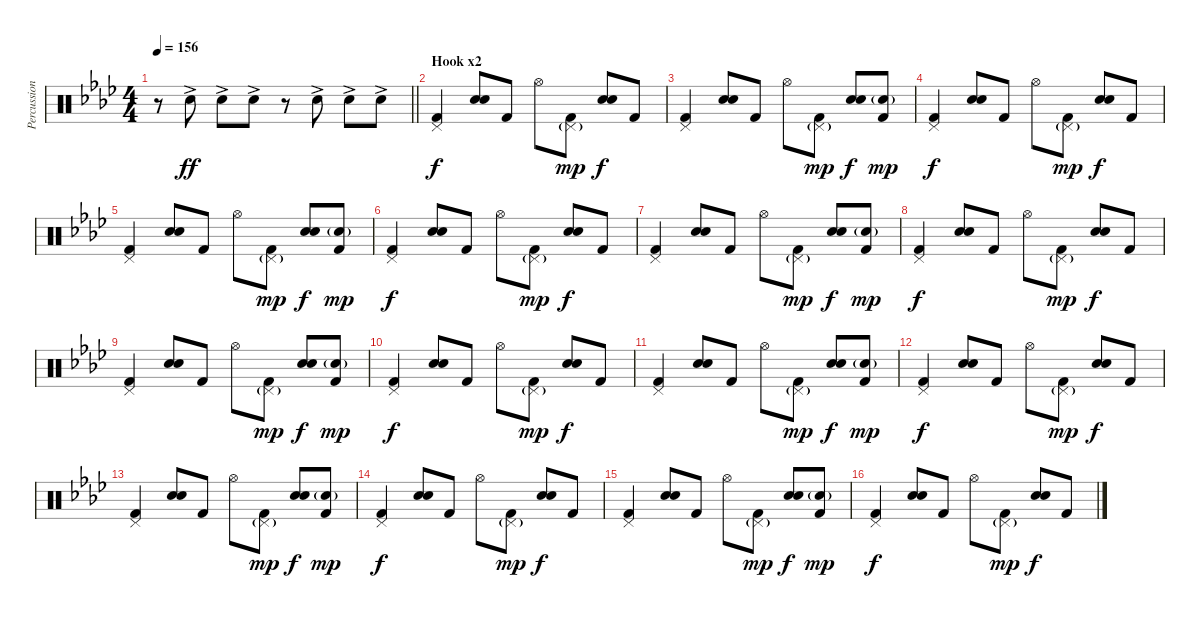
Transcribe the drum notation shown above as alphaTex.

\track ("Percussion" "Percussion") {instrument percussion}
\staff {score}
\articulation defaults
\ts (4 4)
\tempo 156
\clef neutral
\barLineRight lightlight
\ks fminor
r.8{dy ff} "Hand Clap (hit)"{ac}.8 "Hand Clap (hit)"{ac}.8 "Hand Clap (hit)"{ac}.8 r.8 "Hand Clap (hit)"{ac}.8 "Hand Clap (hit)"{ac}.8 "Hand Clap (hit)"{ac}.8 |
\section ("" "Hook x2")
("Pedal Hi-Hat (hit)" "Kick (hit) 2").4{dy f} ("Hand Clap (hit)" "Electric Snare (hit)").8 "Kick (hit) 2".8 "Hi-Hat (open)".8 ("Pedal Hi-Hat (hit)"{g} "Kick (hit) 2").8{dy mp} ("Hand Clap (hit)" "Electric Snare (hit)").8{dy f} "Kick (hit) 2".8 |
("Pedal Hi-Hat (hit)" "Kick (hit) 2").4 ("Hand Clap (hit)" "Electric Snare (hit)").8 "Kick (hit) 2".8 "Hi-Hat (open)".8 ("Pedal Hi-Hat (hit)"{g} "Kick (hit) 2").8{dy mp} ("Hand Clap (hit)" "Electric Snare (hit)").8{dy f} ("Hand Clap (hit)"{g} "Kick (hit) 2").8{dy mp} |
("Pedal Hi-Hat (hit)" "Kick (hit) 2").4{dy f} ("Hand Clap (hit)" "Electric Snare (hit)").8 "Kick (hit) 2".8 "Hi-Hat (open)".8 ("Pedal Hi-Hat (hit)"{g} "Kick (hit) 2").8{dy mp} ("Hand Clap (hit)" "Electric Snare (hit)").8{dy f} "Kick (hit) 2".8 |
("Pedal Hi-Hat (hit)" "Kick (hit) 2").4 ("Hand Clap (hit)" "Electric Snare (hit)").8 "Kick (hit) 2".8 "Hi-Hat (open)".8 ("Pedal Hi-Hat (hit)"{g} "Kick (hit) 2").8{dy mp} ("Hand Clap (hit)" "Electric Snare (hit)").8{dy f} ("Hand Clap (hit)"{g} "Kick (hit) 2").8{dy mp} |
("Pedal Hi-Hat (hit)" "Kick (hit) 2").4{dy f} ("Hand Clap (hit)" "Electric Snare (hit)").8 "Kick (hit) 2".8 "Hi-Hat (open)".8 ("Pedal Hi-Hat (hit)"{g} "Kick (hit) 2").8{dy mp} ("Hand Clap (hit)" "Electric Snare (hit)").8{dy f} "Kick (hit) 2".8 |
("Pedal Hi-Hat (hit)" "Kick (hit) 2").4 ("Hand Clap (hit)" "Electric Snare (hit)").8 "Kick (hit) 2".8 "Hi-Hat (open)".8 ("Pedal Hi-Hat (hit)"{g} "Kick (hit) 2").8{dy mp} ("Hand Clap (hit)" "Electric Snare (hit)").8{dy f} ("Hand Clap (hit)"{g} "Kick (hit) 2").8{dy mp} |
("Pedal Hi-Hat (hit)" "Kick (hit) 2").4{dy f} ("Hand Clap (hit)" "Electric Snare (hit)").8 "Kick (hit) 2".8 "Hi-Hat (open)".8 ("Pedal Hi-Hat (hit)"{g} "Kick (hit) 2").8{dy mp} ("Hand Clap (hit)" "Electric Snare (hit)").8{dy f} "Kick (hit) 2".8 |
("Pedal Hi-Hat (hit)" "Kick (hit) 2").4 ("Hand Clap (hit)" "Electric Snare (hit)").8 "Kick (hit) 2".8 "Hi-Hat (open)".8 ("Pedal Hi-Hat (hit)"{g} "Kick (hit) 2").8{dy mp} ("Hand Clap (hit)" "Electric Snare (hit)").8{dy f} ("Hand Clap (hit)"{g} "Kick (hit) 2").8{dy mp} |
("Pedal Hi-Hat (hit)" "Kick (hit) 2").4{dy f} ("Hand Clap (hit)" "Electric Snare (hit)").8 "Kick (hit) 2".8 "Hi-Hat (open)".8 ("Pedal Hi-Hat (hit)"{g} "Kick (hit) 2").8{dy mp} ("Hand Clap (hit)" "Electric Snare (hit)").8{dy f} "Kick (hit) 2".8 |
("Pedal Hi-Hat (hit)" "Kick (hit) 2").4 ("Hand Clap (hit)" "Electric Snare (hit)").8 "Kick (hit) 2".8 "Hi-Hat (open)".8 ("Pedal Hi-Hat (hit)"{g} "Kick (hit) 2").8{dy mp} ("Hand Clap (hit)" "Electric Snare (hit)").8{dy f} ("Hand Clap (hit)"{g} "Kick (hit) 2").8{dy mp} |
("Pedal Hi-Hat (hit)" "Kick (hit) 2").4{dy f} ("Hand Clap (hit)" "Electric Snare (hit)").8 "Kick (hit) 2".8 "Hi-Hat (open)".8 ("Pedal Hi-Hat (hit)"{g} "Kick (hit) 2").8{dy mp} ("Hand Clap (hit)" "Electric Snare (hit)").8{dy f} "Kick (hit) 2".8 |
("Pedal Hi-Hat (hit)" "Kick (hit) 2").4 ("Hand Clap (hit)" "Electric Snare (hit)").8 "Kick (hit) 2".8 "Hi-Hat (open)".8 ("Pedal Hi-Hat (hit)"{g} "Kick (hit) 2").8{dy mp} ("Hand Clap (hit)" "Electric Snare (hit)").8{dy f} ("Hand Clap (hit)"{g} "Kick (hit) 2").8{dy mp} |
("Pedal Hi-Hat (hit)" "Kick (hit) 2").4{dy f} ("Hand Clap (hit)" "Electric Snare (hit)").8 "Kick (hit) 2".8 "Hi-Hat (open)".8 ("Pedal Hi-Hat (hit)"{g} "Kick (hit) 2").8{dy mp} ("Hand Clap (hit)" "Electric Snare (hit)").8{dy f} "Kick (hit) 2".8 |
("Pedal Hi-Hat (hit)" "Kick (hit) 2").4 ("Hand Clap (hit)" "Electric Snare (hit)").8 "Kick (hit) 2".8 "Hi-Hat (open)".8 ("Pedal Hi-Hat (hit)"{g} "Kick (hit) 2").8{dy mp} ("Hand Clap (hit)" "Electric Snare (hit)").8{dy f} ("Hand Clap (hit)"{g} "Kick (hit) 2").8{dy mp} |
("Pedal Hi-Hat (hit)" "Kick (hit) 2").4{dy f} ("Hand Clap (hit)" "Electric Snare (hit)").8 "Kick (hit) 2".8 "Hi-Hat (open)".8 ("Pedal Hi-Hat (hit)"{g} "Kick (hit) 2").8{dy mp} ("Hand Clap (hit)" "Electric Snare (hit)").8{dy f} "Kick (hit) 2".8
